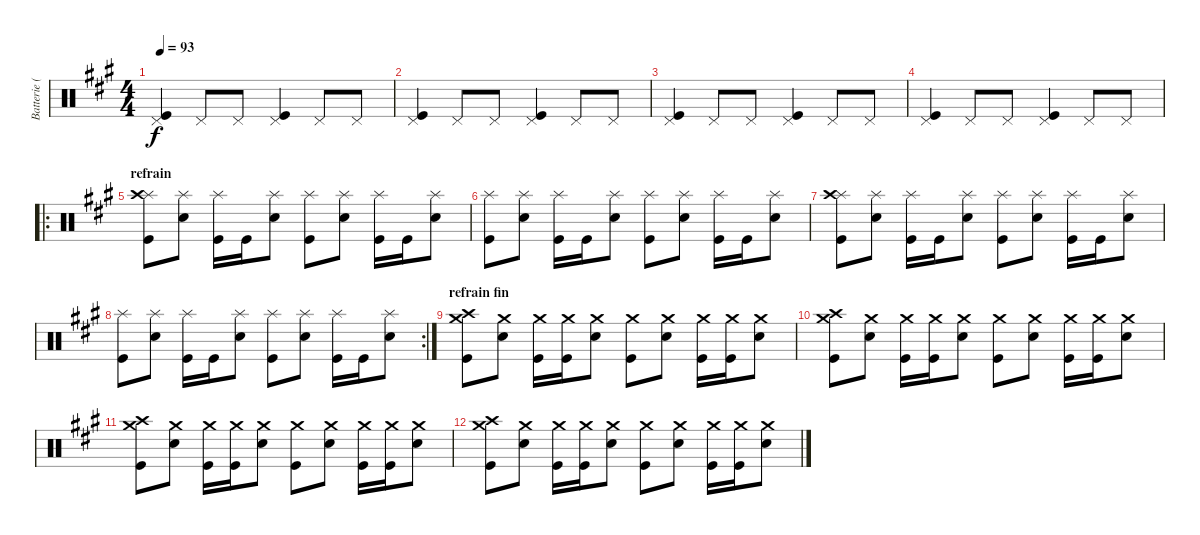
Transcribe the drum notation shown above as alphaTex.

\track ("Batterie (J-E)" "Batterie (") {instrument percussion}
\staff {score}
\articulation defaults
\ts (4 4)
\tempo 93
\clef neutral
\ks a
("Pedal Hi-Hat (hit)" "Kick (hit)").4{dy f} "Pedal Hi-Hat (hit)".8 "Pedal Hi-Hat (hit)".8 ("Pedal Hi-Hat (hit)" "Kick (hit)").4 "Pedal Hi-Hat (hit)".8 "Pedal Hi-Hat (hit)".8 |
("Pedal Hi-Hat (hit)" "Kick (hit)").4 "Pedal Hi-Hat (hit)".8 "Pedal Hi-Hat (hit)".8 ("Pedal Hi-Hat (hit)" "Kick (hit)").4 "Pedal Hi-Hat (hit)".8 "Pedal Hi-Hat (hit)".8 |
("Pedal Hi-Hat (hit)" "Kick (hit)").4 "Pedal Hi-Hat (hit)".8 "Pedal Hi-Hat (hit)".8 ("Pedal Hi-Hat (hit)" "Kick (hit)").4 "Pedal Hi-Hat (hit)".8 "Pedal Hi-Hat (hit)".8 |
("Pedal Hi-Hat (hit)" "Kick (hit)").4 "Pedal Hi-Hat (hit)".8 "Pedal Hi-Hat (hit)".8 ("Pedal Hi-Hat (hit)" "Kick (hit)").4 "Pedal Hi-Hat (hit)".8 "Pedal Hi-Hat (hit)".8 |
\ro
\section ("" "refrain")
("Splash (hit)" "Crash high (hit)" "Kick (hit)").8 ("Splash (hit)" "Snare (hit) 2").8 ("Splash (hit)" "Kick (hit)").16 "Kick (hit)".16 ("Splash (hit)" "Snare (hit) 2").8 ("Splash (hit)" "Kick (hit)").8 ("Splash (hit)" "Snare (hit) 2").8 ("Splash (hit)" "Kick (hit)").16 "Kick (hit)".16 ("Splash (hit)" "Snare (hit) 2").8 |
("Splash (hit)" "Kick (hit)").8 ("Splash (hit)" "Snare (hit) 2").8 ("Splash (hit)" "Kick (hit)").16 "Kick (hit)".16 ("Splash (hit)" "Snare (hit) 2").8 ("Splash (hit)" "Kick (hit)").8 ("Splash (hit)" "Snare (hit) 2").8 ("Splash (hit)" "Kick (hit)").16 "Kick (hit)".16 ("Splash (hit)" "Snare (hit) 2").8 |
("Splash (hit)" "Crash high (hit)" "Kick (hit)").8 ("Splash (hit)" "Snare (hit) 2").8 ("Splash (hit)" "Kick (hit)").16 "Kick (hit)".16 ("Splash (hit)" "Snare (hit) 2").8 ("Splash (hit)" "Kick (hit)").8 ("Splash (hit)" "Snare (hit) 2").8 ("Splash (hit)" "Kick (hit)").16 "Kick (hit)".16 ("Splash (hit)" "Snare (hit) 2").8 |
\rc 2
("Splash (hit)" "Kick (hit)").8 ("Splash (hit)" "Snare (hit) 2").8 ("Splash (hit)" "Kick (hit)").16 "Kick (hit)".16 ("Splash (hit)" "Snare (hit) 2").8 ("Splash (hit)" "Kick (hit)").8 ("Splash (hit)" "Snare (hit) 2").8 ("Splash (hit)" "Kick (hit)").16 "Kick (hit)".16 ("Splash (hit)" "Snare (hit) 2").8 |
\section ("" "refrain fin")
("Crash medium (hit)" "Crash high (hit)" "Kick (hit)").8 ("Crash medium (hit)" "Snare (hit) 2").8 ("Crash medium (hit)" "Kick (hit)").16 ("Crash medium (hit)" "Kick (hit)").16 ("Crash medium (hit)" "Snare (hit) 2").8 ("Crash medium (hit)" "Kick (hit)").8 ("Crash medium (hit)" "Snare (hit) 2").8 ("Crash medium (hit)" "Kick (hit)").16 ("Crash medium (hit)" "Kick (hit)").16 ("Crash medium (hit)" "Snare (hit) 2").8 |
("Crash medium (hit)" "Crash high (hit)" "Kick (hit)").8 ("Crash medium (hit)" "Snare (hit) 2").8 ("Crash medium (hit)" "Kick (hit)").16 ("Crash medium (hit)" "Kick (hit)").16 ("Crash medium (hit)" "Snare (hit) 2").8 ("Crash medium (hit)" "Kick (hit)").8 ("Crash medium (hit)" "Snare (hit) 2").8 ("Crash medium (hit)" "Kick (hit)").16 ("Crash medium (hit)" "Kick (hit)").16 ("Crash medium (hit)" "Snare (hit) 2").8 |
("Crash medium (hit)" "Crash high (hit)" "Kick (hit)").8 ("Crash medium (hit)" "Snare (hit) 2").8 ("Crash medium (hit)" "Kick (hit)").16 ("Crash medium (hit)" "Kick (hit)").16 ("Crash medium (hit)" "Snare (hit) 2").8 ("Crash medium (hit)" "Kick (hit)").8 ("Crash medium (hit)" "Snare (hit) 2").8 ("Crash medium (hit)" "Kick (hit)").16 ("Crash medium (hit)" "Kick (hit)").16 ("Crash medium (hit)" "Snare (hit) 2").8 |
("Crash medium (hit)" "Crash high (hit)" "Kick (hit)").8 ("Crash medium (hit)" "Snare (hit) 2").8 ("Crash medium (hit)" "Kick (hit)").16 ("Crash medium (hit)" "Kick (hit)").16 ("Crash medium (hit)" "Snare (hit) 2").8 ("Crash medium (hit)" "Kick (hit)").8 ("Crash medium (hit)" "Snare (hit) 2").8 ("Crash medium (hit)" "Kick (hit)").16 ("Crash medium (hit)" "Kick (hit)").16 ("Crash medium (hit)" "Snare (hit) 2").8
